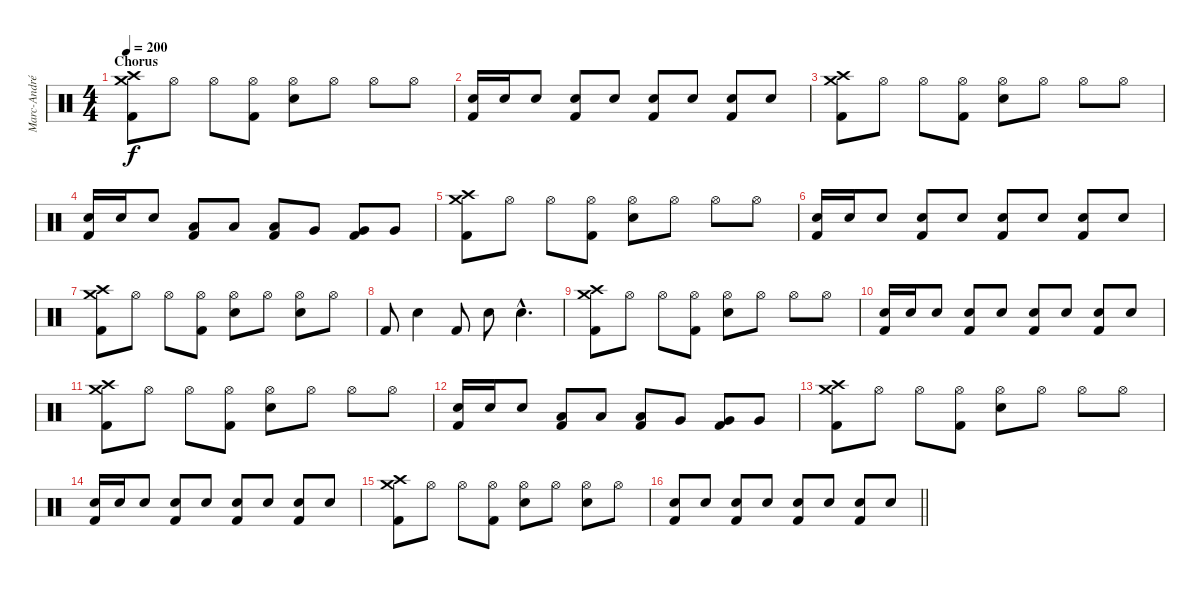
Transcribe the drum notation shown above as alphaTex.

\track ("Marc-André Barabé" "Marc-André") {instrument percussion}
\staff {score}
\articulation defaults
\ts (4 4)
\section ("" "Chorus")
\tempo 200
\clef neutral
\ks c
("Crash high (hit)" "Crash medium (hit)" "Kick (hit) 2").8{dy f} "Hi-Hat (open)".8 "Hi-Hat (open)".8 ("Hi-Hat (open)" "Kick (hit) 2"{tr (36 32)}).8 ("Hi-Hat (open)" "Electric Snare (hit)").8 "Hi-Hat (open)".8 "Hi-Hat (open)".8 "Hi-Hat (open)".8 |
("Electric Snare (hit)" "Kick (hit) 2").16 "Electric Snare (hit)".16 "Electric Snare (hit)".8 ("Electric Snare (hit)" "Kick (hit) 2").8 "Electric Snare (hit)".8 ("Electric Snare (hit)" "Kick (hit) 2").8 "Electric Snare (hit)".8 ("Electric Snare (hit)" "Kick (hit) 2").8 "Electric Snare (hit)".8 |
("Crash high (hit)" "Crash medium (hit)" "Kick (hit) 2").8 "Hi-Hat (open)".8 "Hi-Hat (open)".8 ("Hi-Hat (open)" "Kick (hit) 2"{tr (36 32)}).8 ("Hi-Hat (open)" "Electric Snare (hit)").8 "Hi-Hat (open)".8 "Hi-Hat (open)".8 "Hi-Hat (open)".8 |
("Electric Snare (hit)" "Kick (hit) 2").16 "Electric Snare (hit)".16 "Electric Snare (hit)".8 ("Low Tom (hit)" "Kick (hit) 2").8 "Low Tom (hit)".8 ("Low Tom (hit)" "Kick (hit) 2").8 "Very Low Tom (hit)".8 ("Very Low Tom (hit)" "Kick (hit) 2").8 "Very Low Tom (hit)".8 |
("Crash high (hit)" "Crash medium (hit)" "Kick (hit) 2").8 "Hi-Hat (open)".8 "Hi-Hat (open)".8 ("Hi-Hat (open)" "Kick (hit) 2"{tr (36 32)}).8 ("Hi-Hat (open)" "Electric Snare (hit)").8 "Hi-Hat (open)".8 "Hi-Hat (open)".8 "Hi-Hat (open)".8 |
("Electric Snare (hit)" "Kick (hit) 2").16 "Electric Snare (hit)".16 "Electric Snare (hit)".8 ("Electric Snare (hit)" "Kick (hit) 2").8 "Electric Snare (hit)".8 ("Electric Snare (hit)" "Kick (hit) 2").8 "Electric Snare (hit)".8 ("Electric Snare (hit)" "Kick (hit) 2").8 "Electric Snare (hit)".8 |
("Crash high (hit)" "Crash medium (hit)" "Kick (hit) 2").8 "Hi-Hat (open)".8 "Hi-Hat (open)".8 ("Hi-Hat (open)" "Kick (hit) 2"{tr (36 32)}).8 ("Hi-Hat (open)" "Electric Snare (hit)").8 "Hi-Hat (open)".8 ("Hi-Hat (open)" "Electric Snare (hit)").8 "Hi-Hat (open)".8 |
"Kick (hit) 2"{tr (36 32)}.8 "Electric Snare (hit)".4 "Kick (hit) 2"{tr (36 32)}.8 "Electric Snare (hit)".8 "Electric Snare (hit)"{hac}.4{d} |
("Crash high (hit)" "Crash medium (hit)" "Kick (hit) 2").8 "Hi-Hat (open)".8 "Hi-Hat (open)".8 ("Hi-Hat (open)" "Kick (hit) 2"{tr (36 32)}).8 ("Hi-Hat (open)" "Electric Snare (hit)").8 "Hi-Hat (open)".8 "Hi-Hat (open)".8 "Hi-Hat (open)".8 |
("Electric Snare (hit)" "Kick (hit) 2").16 "Electric Snare (hit)".16 "Electric Snare (hit)".8 ("Electric Snare (hit)" "Kick (hit) 2").8 "Electric Snare (hit)".8 ("Electric Snare (hit)" "Kick (hit) 2").8 "Electric Snare (hit)".8 ("Electric Snare (hit)" "Kick (hit) 2").8 "Electric Snare (hit)".8 |
("Crash high (hit)" "Crash medium (hit)" "Kick (hit) 2").8 "Hi-Hat (open)".8 "Hi-Hat (open)".8 ("Hi-Hat (open)" "Kick (hit) 2"{tr (36 32)}).8 ("Hi-Hat (open)" "Electric Snare (hit)").8 "Hi-Hat (open)".8 "Hi-Hat (open)".8 "Hi-Hat (open)".8 |
("Electric Snare (hit)" "Kick (hit) 2").16 "Electric Snare (hit)".16 "Electric Snare (hit)".8 ("Low Tom (hit)" "Kick (hit) 2").8 "Low Tom (hit)".8 ("Low Tom (hit)" "Kick (hit) 2").8 "Very Low Tom (hit)".8 ("Very Low Tom (hit)" "Kick (hit) 2").8 "Very Low Tom (hit)".8 |
("Crash high (hit)" "Crash medium (hit)" "Kick (hit) 2").8 "Hi-Hat (open)".8 "Hi-Hat (open)".8 ("Hi-Hat (open)" "Kick (hit) 2"{tr (36 32)}).8 ("Hi-Hat (open)" "Electric Snare (hit)").8 "Hi-Hat (open)".8 "Hi-Hat (open)".8 "Hi-Hat (open)".8 |
("Electric Snare (hit)" "Kick (hit) 2").16 "Electric Snare (hit)".16 "Electric Snare (hit)".8 ("Electric Snare (hit)" "Kick (hit) 2").8 "Electric Snare (hit)".8 ("Electric Snare (hit)" "Kick (hit) 2").8 "Electric Snare (hit)".8 ("Electric Snare (hit)" "Kick (hit) 2").8 "Electric Snare (hit)".8 |
("Crash high (hit)" "Crash medium (hit)" "Kick (hit) 2").8 "Hi-Hat (open)".8 "Hi-Hat (open)".8 ("Hi-Hat (open)" "Kick (hit) 2"{tr (36 32)}).8 ("Hi-Hat (open)" "Electric Snare (hit)").8 "Hi-Hat (open)".8 ("Hi-Hat (open)" "Electric Snare (hit)").8 "Hi-Hat (open)".8 |
\barLineRight lightlight
("Electric Snare (hit)" "Kick (hit) 2").8 "Electric Snare (hit)".8 ("Electric Snare (hit)" "Kick (hit) 2").8 "Electric Snare (hit)".8 ("Electric Snare (hit)" "Kick (hit) 2").8 "Electric Snare (hit)".8 ("Electric Snare (hit)" "Kick (hit) 2").8 "Electric Snare (hit)".8
